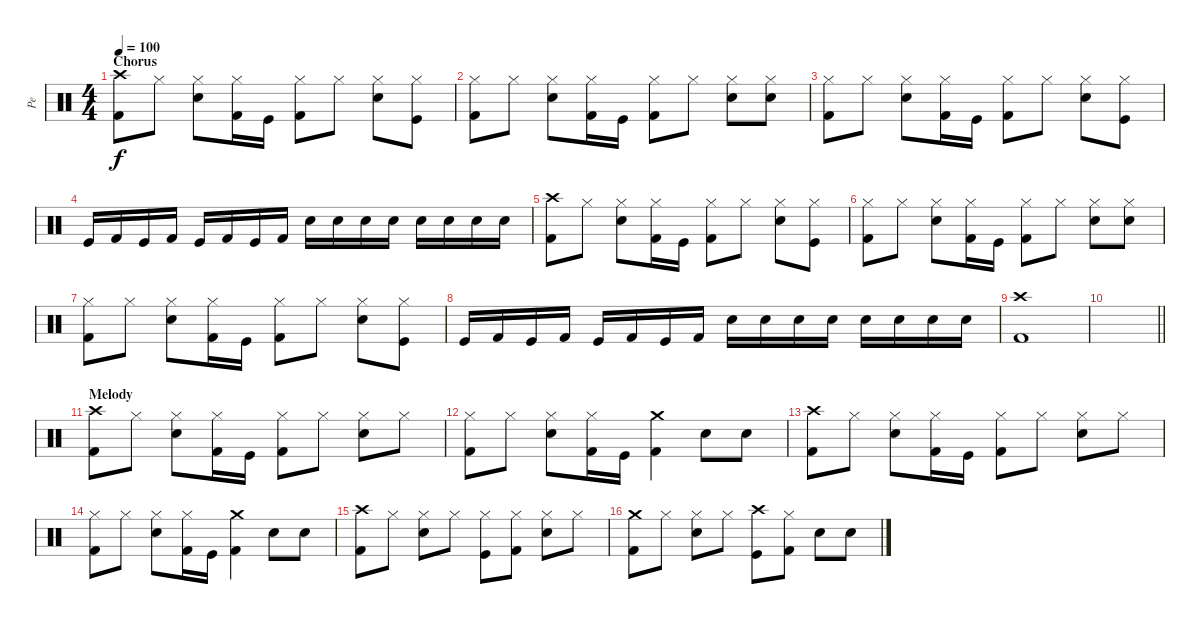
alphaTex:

\track ("Pe" "Pe") {instrument percussion}
\staff {score}
\articulation defaults
\ts (4 4)
\section ("" "Chorus")
\tempo 100
\clef neutral
\ks c
("Kick (hit) 2" "Crash high (hit)").8{dy f} "Hi-Hat (closed)".8 ("Electric Snare (hit)" "Hi-Hat (closed)").8 ("Kick (hit) 2" "Hi-Hat (closed)").16 "Kick (hit)".16 ("Kick (hit) 2" "Hi-Hat (closed)").8 "Hi-Hat (closed)".8 ("Electric Snare (hit)" "Hi-Hat (closed)").8 ("Kick (hit)" "Hi-Hat (closed)").8 |
("Kick (hit) 2" "Hi-Hat (closed)").8 "Hi-Hat (closed)".8 ("Electric Snare (hit)" "Hi-Hat (closed)").8 ("Kick (hit) 2" "Hi-Hat (closed)").16 "Kick (hit)".16 ("Kick (hit) 2" "Hi-Hat (closed)").8 "Hi-Hat (closed)".8 ("Electric Snare (hit)" "Hi-Hat (closed)").8 ("Electric Snare (hit)" "Hi-Hat (closed)").8 |
("Kick (hit) 2" "Hi-Hat (closed)").8 "Hi-Hat (closed)".8 ("Electric Snare (hit)" "Hi-Hat (closed)").8 ("Kick (hit) 2" "Hi-Hat (closed)").16 "Kick (hit)".16 ("Kick (hit) 2" "Hi-Hat (closed)").8 "Hi-Hat (closed)".8 ("Electric Snare (hit)" "Hi-Hat (closed)").8 ("Kick (hit)" "Hi-Hat (closed)").8 |
"Kick (hit)".16 "Kick (hit) 2".16 "Kick (hit)".16 "Kick (hit) 2".16 "Kick (hit)".16 "Kick (hit) 2".16 "Kick (hit)".16 "Kick (hit) 2".16 "Electric Snare (hit)".16 "Electric Snare (hit)".16 "Electric Snare (hit)".16 "Electric Snare (hit)".16 "Electric Snare (hit)".16 "Electric Snare (hit)".16 "Electric Snare (hit)".16 "Electric Snare (hit)".16 |
("Kick (hit) 2" "Crash high (hit)").8 "Hi-Hat (closed)".8 ("Electric Snare (hit)" "Hi-Hat (closed)").8 ("Kick (hit) 2" "Hi-Hat (closed)").16 "Kick (hit)".16 ("Kick (hit) 2" "Hi-Hat (closed)").8 "Hi-Hat (closed)".8 ("Electric Snare (hit)" "Hi-Hat (closed)").8 ("Kick (hit)" "Hi-Hat (closed)").8 |
("Kick (hit) 2" "Hi-Hat (closed)").8 "Hi-Hat (closed)".8 ("Electric Snare (hit)" "Hi-Hat (closed)").8 ("Kick (hit) 2" "Hi-Hat (closed)").16 "Kick (hit)".16 ("Kick (hit) 2" "Hi-Hat (closed)").8 "Hi-Hat (closed)".8 ("Electric Snare (hit)" "Hi-Hat (closed)").8 ("Electric Snare (hit)" "Hi-Hat (closed)").8 |
("Kick (hit) 2" "Hi-Hat (closed)").8 "Hi-Hat (closed)".8 ("Electric Snare (hit)" "Hi-Hat (closed)").8 ("Kick (hit) 2" "Hi-Hat (closed)").16 "Kick (hit)".16 ("Kick (hit) 2" "Hi-Hat (closed)").8 "Hi-Hat (closed)".8 ("Electric Snare (hit)" "Hi-Hat (closed)").8 ("Kick (hit)" "Hi-Hat (closed)").8 |
"Kick (hit)".16 "Kick (hit) 2".16 "Kick (hit)".16 "Kick (hit) 2".16 "Kick (hit)".16 "Kick (hit) 2".16 "Kick (hit)".16 "Kick (hit) 2".16 "Electric Snare (hit)".16 "Electric Snare (hit)".16 "Electric Snare (hit)".16 "Electric Snare (hit)".16 "Electric Snare (hit)".16 "Electric Snare (hit)".16 "Electric Snare (hit)".16 "Electric Snare (hit)".16 |
("Kick (hit) 2" "Crash high (hit)").1 |
\barLineRight lightlight
|
\section ("" "Melody")
("Kick (hit) 2" "Crash high (hit)").8 "Hi-Hat (closed)".8 ("Electric Snare (hit)" "Hi-Hat (closed)").8 ("Kick (hit) 2" "Hi-Hat (closed)").16 "Kick (hit)".16 ("Kick (hit) 2" "Hi-Hat (closed)").8 "Hi-Hat (closed)".8 ("Electric Snare (hit)" "Hi-Hat (closed)").8 "Hi-Hat (closed)".8 |
("Kick (hit) 2" "Hi-Hat (closed)").8 "Hi-Hat (closed)".8 ("Electric Snare (hit)" "Hi-Hat (closed)").8 ("Kick (hit) 2" "Hi-Hat (closed)").16 "Kick (hit)".16 ("Kick (hit) 2" "Crash medium (hit)").4 "Electric Snare (hit)".8 "Electric Snare (hit)".8 |
("Kick (hit) 2" "Crash high (hit)").8 "Hi-Hat (closed)".8 ("Electric Snare (hit)" "Hi-Hat (closed)").8 ("Kick (hit) 2" "Hi-Hat (closed)").16 "Kick (hit)".16 ("Kick (hit) 2" "Hi-Hat (closed)").8 "Hi-Hat (closed)".8 ("Electric Snare (hit)" "Hi-Hat (closed)").8 "Hi-Hat (closed)".8 |
("Kick (hit) 2" "Hi-Hat (closed)").8 "Hi-Hat (closed)".8 ("Electric Snare (hit)" "Hi-Hat (closed)").8 ("Kick (hit) 2" "Hi-Hat (closed)").16 "Kick (hit)".16 ("Kick (hit) 2" "Crash medium (hit)").4 "Electric Snare (hit)".8 "Electric Snare (hit)".8 |
("Kick (hit) 2" "Crash high (hit)").8 "Hi-Hat (closed)".8 ("Electric Snare (hit)" "Hi-Hat (closed)").8 "Hi-Hat (closed)".8 ("Kick (hit)" "Hi-Hat (closed)").8 ("Kick (hit) 2" "Hi-Hat (closed)").8 ("Electric Snare (hit)" "Hi-Hat (closed)").8 "Hi-Hat (closed)".8 |
("Kick (hit) 2" "Crash medium (hit)").8 "Hi-Hat (closed)".8 ("Electric Snare (hit)" "Hi-Hat (closed)").8 "Hi-Hat (closed)".8 ("Kick (hit)" "Crash high (hit)").8 ("Kick (hit) 2" "Hi-Hat (closed)").8 "Electric Snare (hit)".8 "Electric Snare (hit)".8
